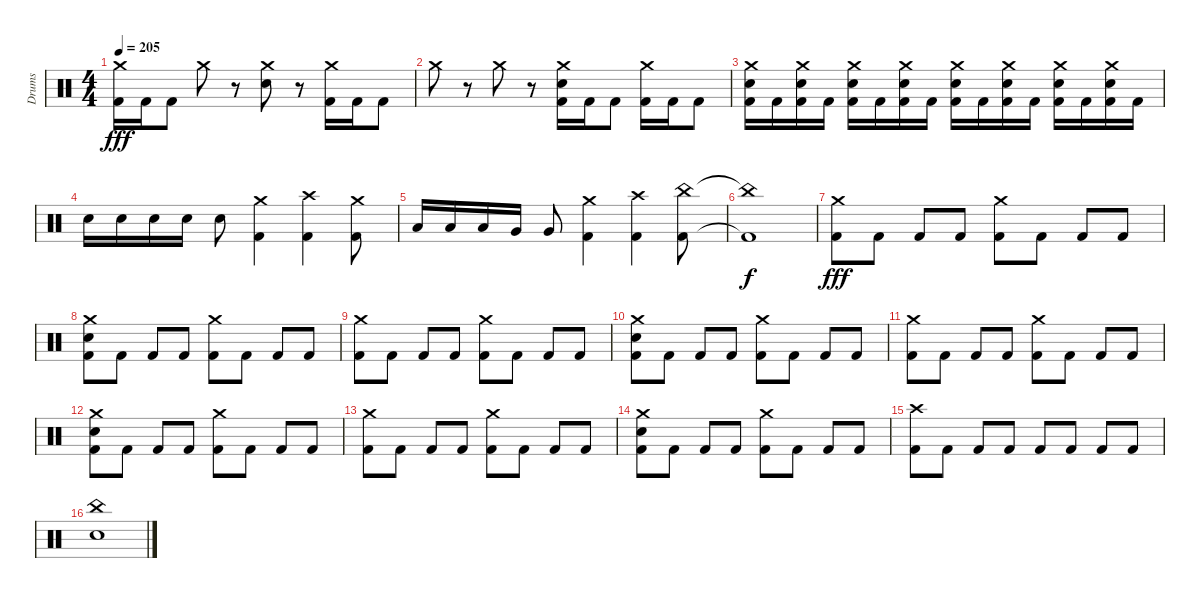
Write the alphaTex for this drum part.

\track ("Drums" "Drums") {instrument percussion}
\staff {score}
\articulation defaults
\ts (4 4)
\tempo 205
\clef neutral
\ks c
("Crash medium (hit)" "Kick (hit) 2").16{dy fff} "Kick (hit) 2".16 "Kick (hit) 2".8 "Crash medium (hit)".8 r.8 ("Crash medium (hit)" "Snare (hit) 2").8 r.8 ("Crash medium (hit)" "Kick (hit) 2").16 "Kick (hit) 2".16 "Kick (hit) 2".8 |
"Crash medium (hit)".8 r.8 "Crash medium (hit)".8 r.8 ("Crash medium (hit)" "Snare (hit) 2" "Kick (hit) 2").16 "Kick (hit) 2".16 "Kick (hit) 2".8 ("Crash medium (hit)" "Kick (hit) 2").16 "Kick (hit) 2".16 "Kick (hit) 2".8 |
("Crash medium (hit)" "Snare (hit) 2" "Kick (hit) 2").16 "Kick (hit) 2".16 ("Crash medium (hit)" "Snare (hit) 2" "Kick (hit) 2").16 "Kick (hit) 2".16 ("Crash medium (hit)" "Snare (hit) 2" "Kick (hit) 2").16 "Kick (hit) 2".16 ("Crash medium (hit)" "Snare (hit) 2" "Kick (hit) 2").16 "Kick (hit) 2".16 ("Crash medium (hit)" "Snare (hit) 2" "Kick (hit) 2").16 "Kick (hit) 2".16 ("Crash medium (hit)" "Snare (hit) 2" "Kick (hit) 2").16 "Kick (hit) 2".16 ("Crash medium (hit)" "Snare (hit) 2" "Kick (hit) 2").16 "Kick (hit) 2".16 ("Crash medium (hit)" "Snare (hit) 2" "Kick (hit) 2").16 "Kick (hit) 2".16 |
"Electric Snare (hit)".16 "Electric Snare (hit)".16 "Electric Snare (hit)".16 "Electric Snare (hit)".16 "Electric Snare (hit)".8 ("Crash medium (hit)" "Kick (hit) 2").4 ("Crash high (hit)" "Kick (hit) 2").4 ("Crash medium (hit)" "Kick (hit) 2").8 |
"Low Tom (hit)".16 "Low Tom (hit)".16 "Low Tom (hit)".16 "Very Low Tom (hit)".16 "Very Low Tom (hit)".8 ("Crash medium (hit)" "Kick (hit) 2").4 ("Crash high (hit)" "Kick (hit) 2").4 ("China (hit)" "Kick (hit) 2").8 |
("China (hit)"{t} "Kick (hit) 2"{t}).1{dy f} |
("Crash medium (hit)" "Kick (hit) 2").8{dy fff} "Kick (hit) 2".8 "Kick (hit) 2".8 "Kick (hit) 2".8 ("Crash medium (hit)" "Kick (hit) 2").8 "Kick (hit) 2".8 "Kick (hit) 2".8 "Kick (hit) 2".8 |
("Crash medium (hit)" "Snare (hit) 2" "Kick (hit) 2").8 "Kick (hit) 2".8 "Kick (hit) 2".8 "Kick (hit) 2".8 ("Crash medium (hit)" "Kick (hit) 2").8 "Kick (hit) 2".8 "Kick (hit) 2".8 "Kick (hit) 2".8 |
("Crash medium (hit)" "Kick (hit) 2").8 "Kick (hit) 2".8 "Kick (hit) 2".8 "Kick (hit) 2".8 ("Crash medium (hit)" "Kick (hit) 2").8 "Kick (hit) 2".8 "Kick (hit) 2".8 "Kick (hit) 2".8 |
("Crash medium (hit)" "Snare (hit) 2" "Kick (hit) 2").8 "Kick (hit) 2".8 "Kick (hit) 2".8 "Kick (hit) 2".8 ("Crash medium (hit)" "Kick (hit) 2").8 "Kick (hit) 2".8 "Kick (hit) 2".8 "Kick (hit) 2".8 |
("Crash medium (hit)" "Kick (hit) 2").8 "Kick (hit) 2".8 "Kick (hit) 2".8 "Kick (hit) 2".8 ("Crash medium (hit)" "Kick (hit) 2").8 "Kick (hit) 2".8 "Kick (hit) 2".8 "Kick (hit) 2".8 |
("Crash medium (hit)" "Snare (hit) 2" "Kick (hit) 2").8 "Kick (hit) 2".8 "Kick (hit) 2".8 "Kick (hit) 2".8 ("Crash medium (hit)" "Kick (hit) 2").8 "Kick (hit) 2".8 "Kick (hit) 2".8 "Kick (hit) 2".8 |
("Crash medium (hit)" "Kick (hit) 2").8 "Kick (hit) 2".8 "Kick (hit) 2".8 "Kick (hit) 2".8 ("Crash medium (hit)" "Kick (hit) 2").8 "Kick (hit) 2".8 "Kick (hit) 2".8 "Kick (hit) 2".8 |
("Crash medium (hit)" "Snare (hit) 2" "Kick (hit) 2").8 "Kick (hit) 2".8 "Kick (hit) 2".8 "Kick (hit) 2".8 ("Crash medium (hit)" "Kick (hit) 2").8 "Kick (hit) 2".8 "Kick (hit) 2".8 "Kick (hit) 2".8 |
("Crash high (hit)" "Kick (hit) 2").8 "Kick (hit) 2".8 "Kick (hit) 2".8 "Kick (hit) 2".8 "Kick (hit) 2".8 "Kick (hit) 2".8 "Kick (hit) 2".8 "Kick (hit) 2".8 |
("China (hit)" "Snare (hit) 2").1
